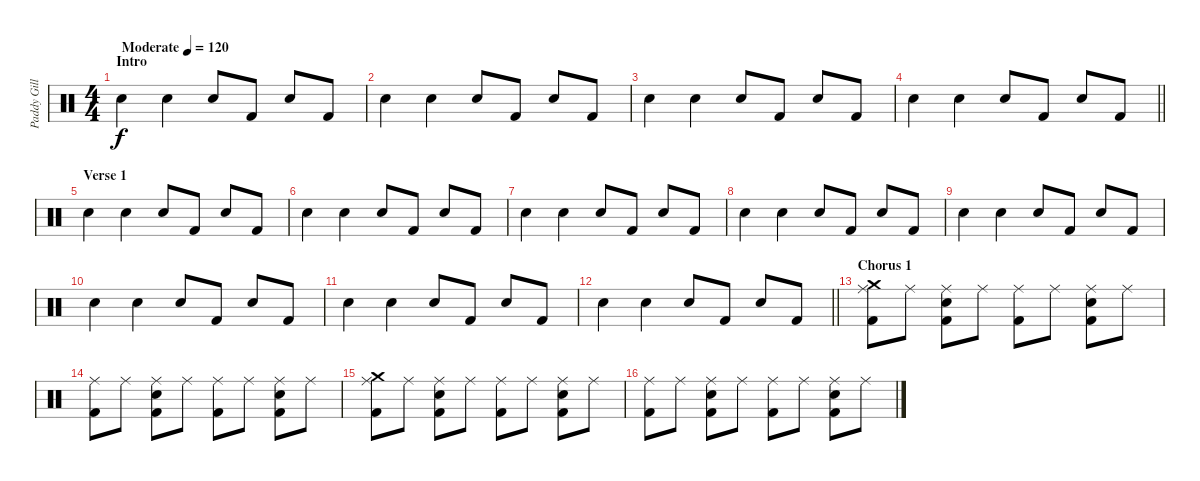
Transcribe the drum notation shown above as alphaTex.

\track ("Paddy Gillespie" "Paddy Gill") {instrument percussion}
\staff {score}
\articulation defaults
\ts (4 4)
\section ("" "Intro")
\tempo (120 "Moderate")
\clef neutral
\ks c "Snare (hit) 2".4{dy f} "Snare (hit) 2".4 "Snare (hit) 2".8 "Kick (hit) 2".8 "Snare (hit) 2".8 "Kick (hit) 2".8
|
"Snare (hit) 2".4 "Snare (hit) 2".4 "Snare (hit) 2".8 "Kick (hit) 2".8 "Snare (hit) 2".8 "Kick (hit) 2".8 |
"Snare (hit) 2".4 "Snare (hit) 2".4 "Snare (hit) 2".8 "Kick (hit) 2".8 "Snare (hit) 2".8 "Kick (hit) 2".8 |
\barLineRight lightlight "Snare (hit) 2".4 "Snare (hit) 2".4 "Snare (hit) 2".8 "Kick (hit) 2".8 "Snare (hit) 2".8 "Kick (hit) 2".8
|
\section ("" "Verse 1")
"Snare (hit) 2".4 "Snare (hit) 2".4 "Snare (hit) 2".8 "Kick (hit) 2".8 "Snare (hit) 2".8 "Kick (hit) 2".8 |
"Snare (hit) 2".4 "Snare (hit) 2".4 "Snare (hit) 2".8 "Kick (hit) 2".8 "Snare (hit) 2".8 "Kick (hit) 2".8 |
"Snare (hit) 2".4 "Snare (hit) 2".4 "Snare (hit) 2".8 "Kick (hit) 2".8 "Snare (hit) 2".8 "Kick (hit) 2".8 |
"Snare (hit) 2".4 "Snare (hit) 2".4 "Snare (hit) 2".8 "Kick (hit) 2".8 "Snare (hit) 2".8 "Kick (hit) 2".8 |
"Snare (hit) 2".4 "Snare (hit) 2".4 "Snare (hit) 2".8 "Kick (hit) 2".8 "Snare (hit) 2".8 "Kick (hit) 2".8 |
"Snare (hit) 2".4 "Snare (hit) 2".4 "Snare (hit) 2".8 "Kick (hit) 2".8 "Snare (hit) 2".8 "Kick (hit) 2".8 |
"Snare (hit) 2".4 "Snare (hit) 2".4 "Snare (hit) 2".8 "Kick (hit) 2".8 "Snare (hit) 2".8 "Kick (hit) 2".8 |
\barLineRight lightlight "Snare (hit) 2".4 "Snare (hit) 2".4 "Snare (hit) 2".8 "Kick (hit) 2".8 "Snare (hit) 2".8 "Kick (hit) 2".8
|
\section ("" "Chorus 1")
("Kick (hit) 2" "Crash medium (hit)" "Ride (middle)").8 "Ride (middle)".8 ("Kick (hit) 2" "Ride (middle)" "Snare (hit) 2").8 "Ride (middle)".8 ("Kick (hit) 2" "Ride (middle)").8 "Ride (middle)".8 ("Kick (hit) 2" "Ride (middle)" "Snare (hit) 2").8 "Ride (middle)".8 |
("Kick (hit) 2" "Ride (middle)").8 "Ride (middle)".8 ("Kick (hit) 2" "Ride (middle)" "Snare (hit) 2").8 "Ride (middle)".8 ("Kick (hit) 2" "Ride (middle)").8 "Ride (middle)".8 ("Kick (hit) 2" "Ride (middle)" "Snare (hit) 2").8 "Ride (middle)".8 |
("Kick (hit) 2" "Crash medium (hit)" "Ride (middle)").8 "Ride (middle)".8 ("Kick (hit) 2" "Ride (middle)" "Snare (hit) 2").8 "Ride (middle)".8 ("Kick (hit) 2" "Ride (middle)").8 "Ride (middle)".8 ("Kick (hit) 2" "Ride (middle)" "Snare (hit) 2").8 "Ride (middle)".8 |
("Kick (hit) 2" "Ride (middle)").8 "Ride (middle)".8 ("Kick (hit) 2" "Ride (middle)" "Snare (hit) 2").8 "Ride (middle)".8 ("Kick (hit) 2" "Ride (middle)").8 "Ride (middle)".8 ("Kick (hit) 2" "Ride (middle)" "Snare (hit) 2").8 "Ride (middle)".8
